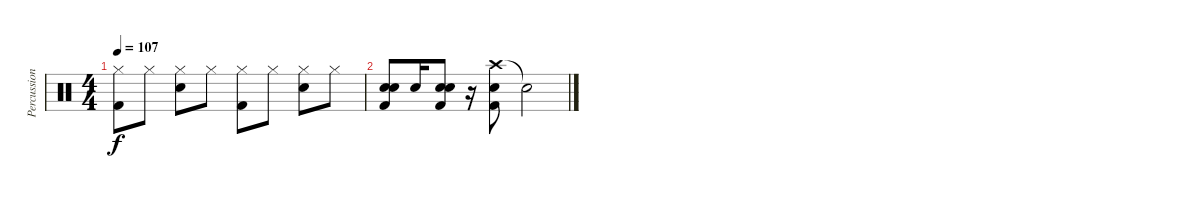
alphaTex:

\track ("Percussion" "Percussion") {instrument percussion}
\staff {score}
\articulation defaults
\ts (4 4)
\tempo 107
\clef neutral
\ks c
("Hi-Hat (closed)" "Kick (hit) 2").8{dy f} "Hi-Hat (closed)".8 ("Hi-Hat (closed)" "Electric Snare (hit)").8 "Hi-Hat (closed)".8 ("Hi-Hat (closed)" "Kick (hit) 2").8 "Hi-Hat (closed)".8 ("Hi-Hat (closed)" "Electric Snare (hit)").8 "Hi-Hat (closed)".8 |
("Snare (hit) 2" "Electric Snare (hit)" "Kick (hit) 2").8 "Electric Snare (hit)".16 ("Snare (hit) 2" "Electric Snare (hit)" "Kick (hit) 2").8 r.16 ("Crash high (hit)" "Electric Snare (hit)" "Kick (hit) 2").8 "Snare (hit)"{t}.2
